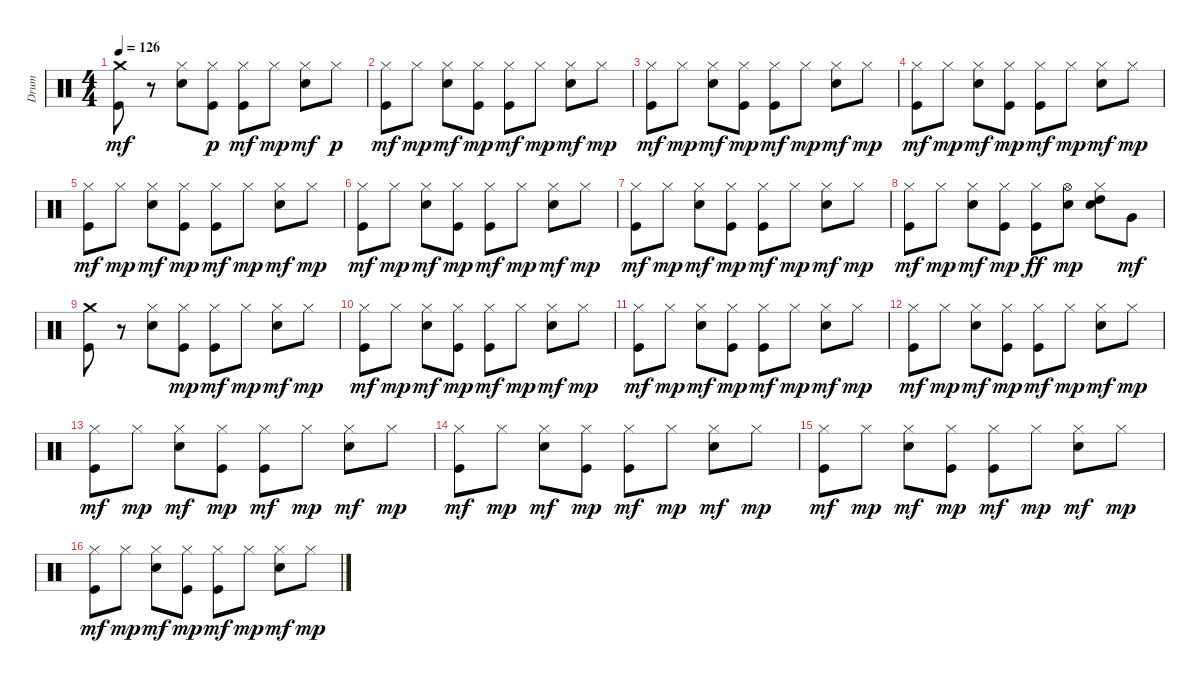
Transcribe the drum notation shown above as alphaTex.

\track ("Drum" "Drum") {instrument percussion}
\staff {score}
\articulation defaults
\ts (4 4)
\tempo 126
\clef neutral
\ks c
("Kick (hit)" "Crash medium (hit)").8{dy mf} r.8 ("Snare (hit) 2" "Hi-Hat (closed)").8 ("Kick (hit)" "Hi-Hat (closed)").8{dy p} ("Kick (hit)" "Hi-Hat (closed)").8{dy mf} "Hi-Hat (closed)".8{dy mp} ("Snare (hit) 2" "Hi-Hat (closed)").8{dy mf} "Hi-Hat (closed)".8{dy p} |
("Kick (hit)" "Hi-Hat (closed)").8{dy mf} "Hi-Hat (closed)".8{dy mp} ("Snare (hit) 2" "Hi-Hat (closed)").8{dy mf} ("Kick (hit)" "Hi-Hat (closed)").8{dy mp} ("Kick (hit)" "Hi-Hat (closed)").8{dy mf} "Hi-Hat (closed)".8{dy mp} ("Snare (hit) 2" "Hi-Hat (closed)").8{dy mf} "Hi-Hat (closed)".8{dy mp} |
("Kick (hit)" "Hi-Hat (closed)").8{dy mf} "Hi-Hat (closed)".8{dy mp} ("Snare (hit) 2" "Hi-Hat (closed)").8{dy mf} ("Kick (hit)" "Hi-Hat (closed)").8{dy mp} ("Kick (hit)" "Hi-Hat (closed)").8{dy mf} "Hi-Hat (closed)".8{dy mp} ("Snare (hit) 2" "Hi-Hat (closed)").8{dy mf} "Hi-Hat (closed)".8{dy mp} |
("Kick (hit)" "Hi-Hat (closed)").8{dy mf} "Hi-Hat (closed)".8{dy mp} ("Snare (hit) 2" "Hi-Hat (closed)").8{dy mf} ("Kick (hit)" "Hi-Hat (closed)").8{dy mp} ("Kick (hit)" "Hi-Hat (closed)").8{dy mf} "Hi-Hat (closed)".8{dy mp} ("Snare (hit) 2" "Hi-Hat (closed)").8{dy mf} "Hi-Hat (closed)".8{dy mp} |
("Kick (hit)" "Hi-Hat (closed)").8{dy mf} "Hi-Hat (closed)".8{dy mp} ("Snare (hit) 2" "Hi-Hat (closed)").8{dy mf} ("Kick (hit)" "Hi-Hat (closed)").8{dy mp} ("Kick (hit)" "Hi-Hat (closed)").8{dy mf} "Hi-Hat (closed)".8{dy mp} ("Snare (hit) 2" "Hi-Hat (closed)").8{dy mf} "Hi-Hat (closed)".8{dy mp} |
("Kick (hit)" "Hi-Hat (closed)").8{dy mf} "Hi-Hat (closed)".8{dy mp} ("Snare (hit) 2" "Hi-Hat (closed)").8{dy mf} ("Kick (hit)" "Hi-Hat (closed)").8{dy mp} ("Kick (hit)" "Hi-Hat (closed)").8{dy mf} "Hi-Hat (closed)".8{dy mp} ("Snare (hit) 2" "Hi-Hat (closed)").8{dy mf} "Hi-Hat (closed)".8{dy mp} |
("Kick (hit)" "Hi-Hat (closed)").8{dy mf} "Hi-Hat (closed)".8{dy mp} ("Snare (hit) 2" "Hi-Hat (closed)").8{dy mf} ("Kick (hit)" "Hi-Hat (closed)").8{dy mp} ("Kick (hit)" "Hi-Hat (closed)").8{dy mf} "Hi-Hat (closed)".8{dy mp} ("Snare (hit) 2" "Hi-Hat (closed)").8{dy mf} "Hi-Hat (closed)".8{dy mp} |
("Kick (hit)" "Hi-Hat (closed)").8{dy mf} "Hi-Hat (closed)".8{dy mp} ("Snare (hit) 2" "Hi-Hat (closed)").8{dy mf} ("Kick (hit)" "Hi-Hat (closed)").8{dy mp} ("Kick (hit)" "Hi-Hat (closed)").8{dy ff} ("Snare (hit) 2" "Hi-Hat (open)").8{dy mp} ("Snare (hit) 2" "High Tom (hit)" "Hi-Hat (closed)").8 "Very Low Tom (hit)".8{dy mf} |
("Kick (hit)" "Crash medium (hit)").8 r.8 ("Snare (hit) 2" "Hi-Hat (closed)").8 ("Kick (hit)" "Hi-Hat (closed)").8{dy mp} ("Kick (hit)" "Hi-Hat (closed)").8{dy mf} "Hi-Hat (closed)".8{dy mp} ("Snare (hit) 2" "Hi-Hat (closed)").8{dy mf} "Hi-Hat (closed)".8{dy mp} |
("Kick (hit)" "Hi-Hat (closed)").8{dy mf} "Hi-Hat (closed)".8{dy mp} ("Snare (hit) 2" "Hi-Hat (closed)").8{dy mf} ("Kick (hit)" "Hi-Hat (closed)").8{dy mp} ("Kick (hit)" "Hi-Hat (closed)").8{dy mf} "Hi-Hat (closed)".8{dy mp} ("Snare (hit) 2" "Hi-Hat (closed)").8{dy mf} "Hi-Hat (closed)".8{dy mp} |
("Kick (hit)" "Hi-Hat (closed)").8{dy mf} "Hi-Hat (closed)".8{dy mp} ("Snare (hit) 2" "Hi-Hat (closed)").8{dy mf} ("Kick (hit)" "Hi-Hat (closed)").8{dy mp} ("Kick (hit)" "Hi-Hat (closed)").8{dy mf} "Hi-Hat (closed)".8{dy mp} ("Snare (hit) 2" "Hi-Hat (closed)").8{dy mf} "Hi-Hat (closed)".8{dy mp} |
("Kick (hit)" "Hi-Hat (closed)").8{dy mf} "Hi-Hat (closed)".8{dy mp} ("Snare (hit) 2" "Hi-Hat (closed)").8{dy mf} ("Kick (hit)" "Hi-Hat (closed)").8{dy mp} ("Kick (hit)" "Hi-Hat (closed)").8{dy mf} "Hi-Hat (closed)".8{dy mp} ("Snare (hit) 2" "Hi-Hat (closed)").8{dy mf} "Hi-Hat (closed)".8{dy mp} |
("Kick (hit)" "Hi-Hat (closed)").8{dy mf} "Hi-Hat (closed)".8{dy mp} ("Snare (hit) 2" "Hi-Hat (closed)").8{dy mf} ("Kick (hit)" "Hi-Hat (closed)").8{dy mp} ("Kick (hit)" "Hi-Hat (closed)").8{dy mf} "Hi-Hat (closed)".8{dy mp} ("Snare (hit) 2" "Hi-Hat (closed)").8{dy mf} "Hi-Hat (closed)".8{dy mp} |
("Kick (hit)" "Hi-Hat (closed)").8{dy mf} "Hi-Hat (closed)".8{dy mp} ("Snare (hit) 2" "Hi-Hat (closed)").8{dy mf} ("Kick (hit)" "Hi-Hat (closed)").8{dy mp} ("Kick (hit)" "Hi-Hat (closed)").8{dy mf} "Hi-Hat (closed)".8{dy mp} ("Snare (hit) 2" "Hi-Hat (closed)").8{dy mf} "Hi-Hat (closed)".8{dy mp} |
("Kick (hit)" "Hi-Hat (closed)").8{dy mf} "Hi-Hat (closed)".8{dy mp} ("Snare (hit) 2" "Hi-Hat (closed)").8{dy mf} ("Kick (hit)" "Hi-Hat (closed)").8{dy mp} ("Kick (hit)" "Hi-Hat (closed)").8{dy mf} "Hi-Hat (closed)".8{dy mp} ("Snare (hit) 2" "Hi-Hat (closed)").8{dy mf} "Hi-Hat (closed)".8{dy mp} |
("Kick (hit)" "Hi-Hat (closed)").8{dy mf} "Hi-Hat (closed)".8{dy mp} ("Snare (hit) 2" "Hi-Hat (closed)").8{dy mf} ("Kick (hit)" "Hi-Hat (closed)").8{dy mp} ("Kick (hit)" "Hi-Hat (closed)").8{dy mf} "Hi-Hat (closed)".8{dy mp} ("Snare (hit) 2" "Hi-Hat (closed)").8{dy mf} "Hi-Hat (closed)".8{dy mp}
